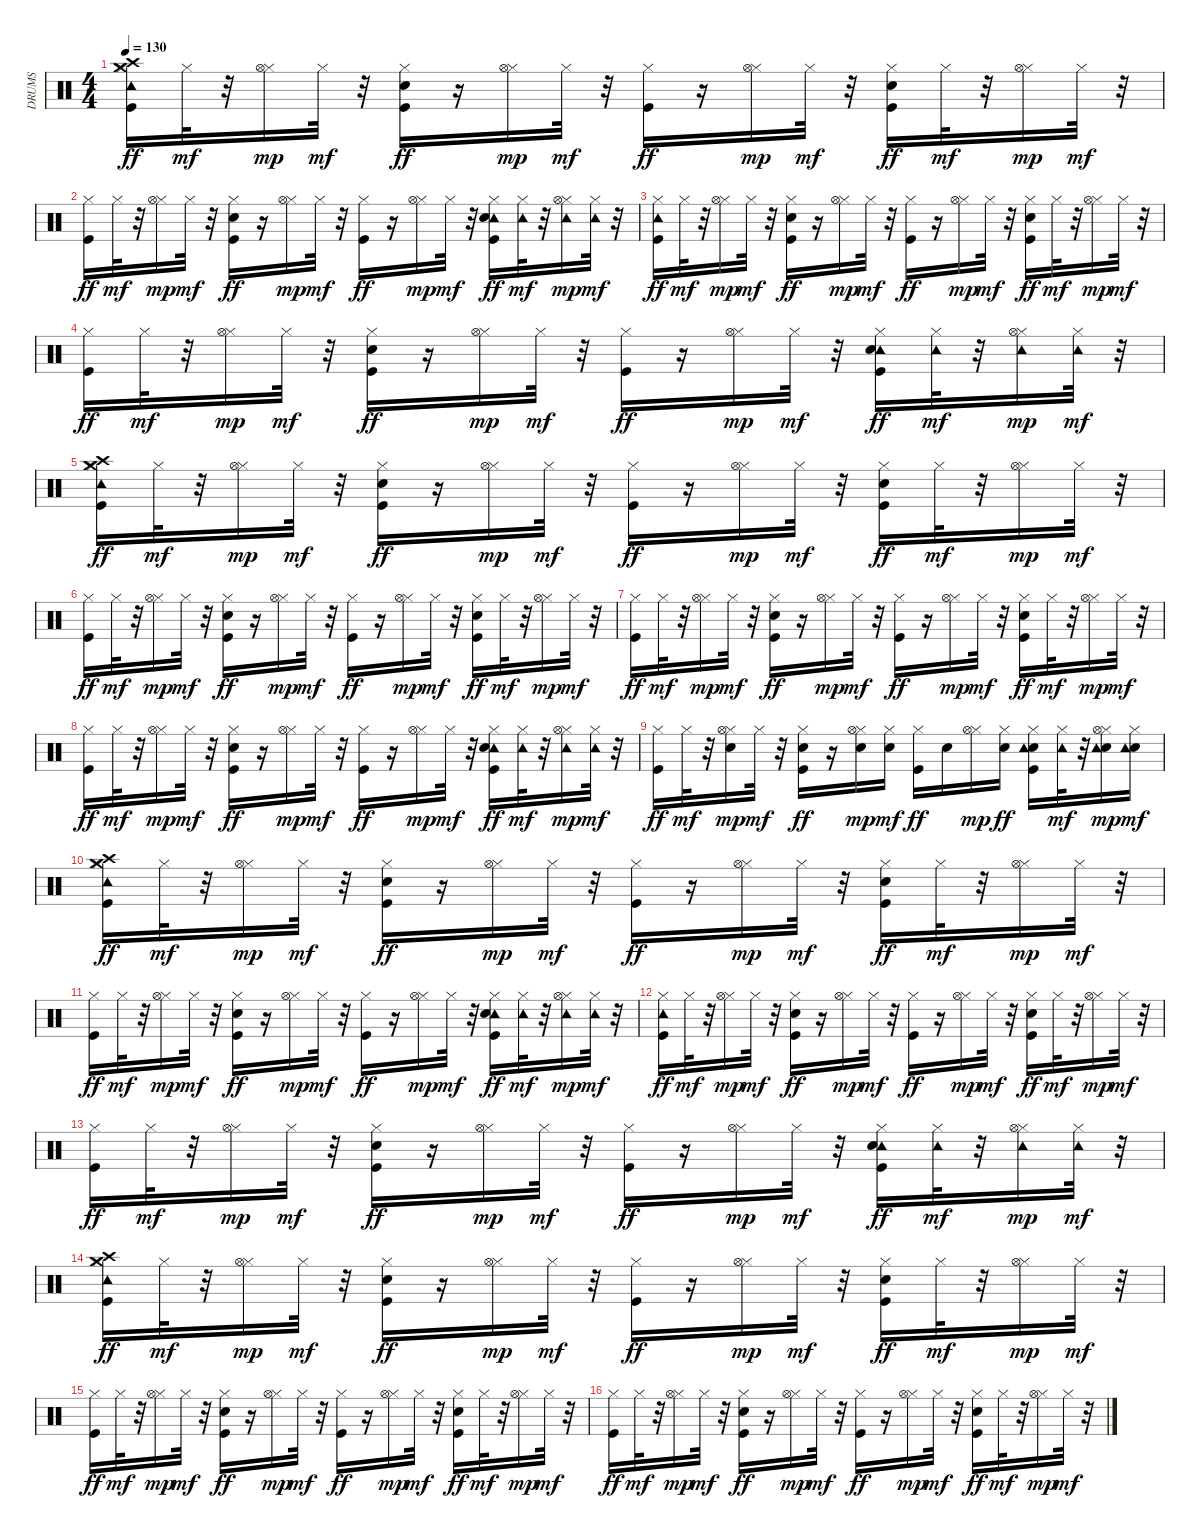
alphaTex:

\track ("DRUMS" "DRUMS") {instrument percussion}
\staff {score}
\articulation defaults
\ts (4 4)
\tempo 130
\clef neutral
\ks c
("Hi-Hat (closed)" "Tambourine (hit)" "Crash high (hit)" "Crash medium (hit)" "Kick (hit)").16{dy ff} "Hi-Hat (closed)".32{dy mf} r.32 ("Hi-Hat (closed)" "Hi-Hat (open)").16{dy mp} "Hi-Hat (closed)".32{dy mf} r.32 ("Hi-Hat (closed)" "Electric Snare (hit)" "Kick (hit)").16{dy ff} r.16 ("Hi-Hat (closed)" "Hi-Hat (open)").16{dy mp} "Hi-Hat (closed)".32{dy mf} r.32 ("Hi-Hat (closed)" "Kick (hit)").16{dy ff} r.16 ("Hi-Hat (closed)" "Hi-Hat (open)").16{dy mp} "Hi-Hat (closed)".32{dy mf} r.32 ("Hi-Hat (closed)" "Electric Snare (hit)" "Kick (hit)").16{dy ff} "Hi-Hat (closed)".32{dy mf} r.32 ("Hi-Hat (closed)" "Hi-Hat (open)").16{dy mp} "Hi-Hat (closed)".32{dy mf} r.32 |
("Hi-Hat (closed)" "Kick (hit)").16{dy ff} "Hi-Hat (closed)".32{dy mf} r.32 ("Hi-Hat (closed)" "Hi-Hat (open)").16{dy mp} "Hi-Hat (closed)".32{dy mf} r.32 ("Hi-Hat (closed)" "Electric Snare (hit)" "Kick (hit)").16{dy ff} r.16 ("Hi-Hat (closed)" "Hi-Hat (open)").16{dy mp} "Hi-Hat (closed)".32{dy mf} r.32 ("Hi-Hat (closed)" "Kick (hit)").16{dy ff} r.16 ("Hi-Hat (closed)" "Hi-Hat (open)").16{dy mp} "Hi-Hat (closed)".32{dy mf} r.32 ("Hi-Hat (closed)" "Tambourine (hit)" "Electric Snare (hit)" "Kick (hit)").16{dy ff} ("Hi-Hat (closed)" "Tambourine (hit)").32{dy mf} r.32 ("Hi-Hat (closed)" "Tambourine (hit)" "Hi-Hat (open)").16{dy mp} ("Hi-Hat (closed)" "Tambourine (hit)").32{dy mf} r.32 |
("Hi-Hat (closed)" "Tambourine (hit)" "Kick (hit)").16{dy ff} "Hi-Hat (closed)".32{dy mf} r.32 ("Hi-Hat (closed)" "Hi-Hat (open)").16{dy mp} "Hi-Hat (closed)".32{dy mf} r.32 ("Hi-Hat (closed)" "Electric Snare (hit)" "Kick (hit)").16{dy ff} r.16 ("Hi-Hat (closed)" "Hi-Hat (open)").16{dy mp} "Hi-Hat (closed)".32{dy mf} r.32 ("Hi-Hat (closed)" "Kick (hit)").16{dy ff} r.16 ("Hi-Hat (closed)" "Hi-Hat (open)").16{dy mp} "Hi-Hat (closed)".32{dy mf} r.32 ("Hi-Hat (closed)" "Electric Snare (hit)" "Kick (hit)").16{dy ff} "Hi-Hat (closed)".32{dy mf} r.32 ("Hi-Hat (closed)" "Hi-Hat (open)").16{dy mp} "Hi-Hat (closed)".32{dy mf} r.32 |
("Hi-Hat (closed)" "Kick (hit)").16{dy ff} "Hi-Hat (closed)".32{dy mf} r.32 ("Hi-Hat (closed)" "Hi-Hat (open)").16{dy mp} "Hi-Hat (closed)".32{dy mf} r.32 ("Hi-Hat (closed)" "Electric Snare (hit)" "Kick (hit)").16{dy ff} r.16 ("Hi-Hat (closed)" "Hi-Hat (open)").16{dy mp} "Hi-Hat (closed)".32{dy mf} r.32 ("Hi-Hat (closed)" "Kick (hit)").16{dy ff} r.16 ("Hi-Hat (closed)" "Hi-Hat (open)").16{dy mp} "Hi-Hat (closed)".32{dy mf} r.32 ("Hi-Hat (closed)" "Tambourine (hit)" "Electric Snare (hit)" "Kick (hit)").16{dy ff} ("Hi-Hat (closed)" "Tambourine (hit)").32{dy mf} r.32 ("Hi-Hat (closed)" "Tambourine (hit)" "Hi-Hat (open)").16{dy mp} ("Hi-Hat (closed)" "Tambourine (hit)").32{dy mf} r.32 |
("Hi-Hat (closed)" "Tambourine (hit)" "Crash high (hit)" "Crash medium (hit)" "Kick (hit)").16{dy ff} "Hi-Hat (closed)".32{dy mf} r.32 ("Hi-Hat (closed)" "Hi-Hat (open)").16{dy mp} "Hi-Hat (closed)".32{dy mf} r.32 ("Hi-Hat (closed)" "Electric Snare (hit)" "Kick (hit)").16{dy ff} r.16 ("Hi-Hat (closed)" "Hi-Hat (open)").16{dy mp} "Hi-Hat (closed)".32{dy mf} r.32 ("Hi-Hat (closed)" "Kick (hit)").16{dy ff} r.16 ("Hi-Hat (closed)" "Hi-Hat (open)").16{dy mp} "Hi-Hat (closed)".32{dy mf} r.32 ("Hi-Hat (closed)" "Electric Snare (hit)" "Kick (hit)").16{dy ff} "Hi-Hat (closed)".32{dy mf} r.32 ("Hi-Hat (closed)" "Hi-Hat (open)").16{dy mp} "Hi-Hat (closed)".32{dy mf} r.32 |
("Hi-Hat (closed)" "Kick (hit)").16{dy ff} "Hi-Hat (closed)".32{dy mf} r.32 ("Hi-Hat (closed)" "Hi-Hat (open)").16{dy mp} "Hi-Hat (closed)".32{dy mf} r.32 ("Hi-Hat (closed)" "Electric Snare (hit)" "Kick (hit)").16{dy ff} r.16 ("Hi-Hat (closed)" "Hi-Hat (open)").16{dy mp} "Hi-Hat (closed)".32{dy mf} r.32 ("Hi-Hat (closed)" "Kick (hit)").16{dy ff} r.16 ("Hi-Hat (closed)" "Hi-Hat (open)").16{dy mp} "Hi-Hat (closed)".32{dy mf} r.32 ("Hi-Hat (closed)" "Electric Snare (hit)" "Kick (hit)").16{dy ff} "Hi-Hat (closed)".32{dy mf} r.32 ("Hi-Hat (closed)" "Hi-Hat (open)").16{dy mp} "Hi-Hat (closed)".32{dy mf} r.32 |
("Hi-Hat (closed)" "Kick (hit)").16{dy ff} "Hi-Hat (closed)".32{dy mf} r.32 ("Hi-Hat (closed)" "Hi-Hat (open)").16{dy mp} "Hi-Hat (closed)".32{dy mf} r.32 ("Hi-Hat (closed)" "Electric Snare (hit)" "Kick (hit)").16{dy ff} r.16 ("Hi-Hat (closed)" "Hi-Hat (open)").16{dy mp} "Hi-Hat (closed)".32{dy mf} r.32 ("Hi-Hat (closed)" "Kick (hit)").16{dy ff} r.16 ("Hi-Hat (closed)" "Hi-Hat (open)").16{dy mp} "Hi-Hat (closed)".32{dy mf} r.32 ("Hi-Hat (closed)" "Electric Snare (hit)" "Kick (hit)").16{dy ff} "Hi-Hat (closed)".32{dy mf} r.32 ("Hi-Hat (closed)" "Hi-Hat (open)").16{dy mp} "Hi-Hat (closed)".32{dy mf} r.32 |
("Hi-Hat (closed)" "Kick (hit)").16{dy ff} "Hi-Hat (closed)".32{dy mf} r.32 ("Hi-Hat (closed)" "Hi-Hat (open)").16{dy mp} "Hi-Hat (closed)".32{dy mf} r.32 ("Hi-Hat (closed)" "Electric Snare (hit)" "Kick (hit)").16{dy ff} r.16 ("Hi-Hat (closed)" "Hi-Hat (open)").16{dy mp} "Hi-Hat (closed)".32{dy mf} r.32 ("Hi-Hat (closed)" "Kick (hit)").16{dy ff} r.16 ("Hi-Hat (closed)" "Hi-Hat (open)").16{dy mp} "Hi-Hat (closed)".32{dy mf} r.32 ("Hi-Hat (closed)" "Tambourine (hit)" "Electric Snare (hit)" "Kick (hit)").16{dy ff} ("Hi-Hat (closed)" "Tambourine (hit)").32{dy mf} r.32 ("Hi-Hat (closed)" "Tambourine (hit)" "Hi-Hat (open)").16{dy mp} ("Hi-Hat (closed)" "Tambourine (hit)").32{dy mf} r.32 |
("Hi-Hat (closed)" "Kick (hit)").16{dy ff} "Hi-Hat (closed)".32{dy mf} r.32 ("Electric Snare (hit)" "Hi-Hat (closed)" "Hi-Hat (open)").16{dy mp} "Hi-Hat (closed)".32{dy mf} r.32 ("Hi-Hat (closed)" "Electric Snare (hit)" "Kick (hit)").16{dy ff} r.16 ("Electric Snare (hit)" "Hi-Hat (closed)" "Hi-Hat (open)").16{dy mp} ("Electric Snare (hit)" "Hi-Hat (closed)").16{dy mf} ("Hi-Hat (closed)" "Kick (hit)").16{dy ff} "Electric Snare (hit)".16 ("Hi-Hat (closed)" "Hi-Hat (open)").16{dy mp} ("Hi-Hat (closed)" "Electric Snare (hit)").16{dy ff} ("Hi-Hat (closed)" "Electric Snare (hit)" "Tambourine (hit)" "Kick (hit)").16 ("Hi-Hat (closed)" "Tambourine (hit)").32{dy mf} r.32 ("Hi-Hat (closed)" "Electric Snare (hit)" "Tambourine (hit)" "Hi-Hat (open)").16{dy mp} ("Hi-Hat (closed)" "Electric Snare (hit)" "Tambourine (hit)").16{dy mf} |
("Hi-Hat (closed)" "Tambourine (hit)" "Crash high (hit)" "Crash medium (hit)" "Kick (hit)").16{dy ff} "Hi-Hat (closed)".32{dy mf} r.32 ("Hi-Hat (closed)" "Hi-Hat (open)").16{dy mp} "Hi-Hat (closed)".32{dy mf} r.32 ("Hi-Hat (closed)" "Electric Snare (hit)" "Kick (hit)").16{dy ff} r.16 ("Hi-Hat (closed)" "Hi-Hat (open)").16{dy mp} "Hi-Hat (closed)".32{dy mf} r.32 ("Hi-Hat (closed)" "Kick (hit)").16{dy ff} r.16 ("Hi-Hat (closed)" "Hi-Hat (open)").16{dy mp} "Hi-Hat (closed)".32{dy mf} r.32 ("Hi-Hat (closed)" "Electric Snare (hit)" "Kick (hit)").16{dy ff} "Hi-Hat (closed)".32{dy mf} r.32 ("Hi-Hat (closed)" "Hi-Hat (open)").16{dy mp} "Hi-Hat (closed)".32{dy mf} r.32 |
("Hi-Hat (closed)" "Kick (hit)").16{dy ff} "Hi-Hat (closed)".32{dy mf} r.32 ("Hi-Hat (closed)" "Hi-Hat (open)").16{dy mp} "Hi-Hat (closed)".32{dy mf} r.32 ("Hi-Hat (closed)" "Electric Snare (hit)" "Kick (hit)").16{dy ff} r.16 ("Hi-Hat (closed)" "Hi-Hat (open)").16{dy mp} "Hi-Hat (closed)".32{dy mf} r.32 ("Hi-Hat (closed)" "Kick (hit)").16{dy ff} r.16 ("Hi-Hat (closed)" "Hi-Hat (open)").16{dy mp} "Hi-Hat (closed)".32{dy mf} r.32 ("Hi-Hat (closed)" "Tambourine (hit)" "Electric Snare (hit)" "Kick (hit)").16{dy ff} ("Hi-Hat (closed)" "Tambourine (hit)").32{dy mf} r.32 ("Hi-Hat (closed)" "Tambourine (hit)" "Hi-Hat (open)").16{dy mp} ("Hi-Hat (closed)" "Tambourine (hit)").32{dy mf} r.32 |
("Hi-Hat (closed)" "Tambourine (hit)" "Kick (hit)").16{dy ff} "Hi-Hat (closed)".32{dy mf} r.32 ("Hi-Hat (closed)" "Hi-Hat (open)").16{dy mp} "Hi-Hat (closed)".32{dy mf} r.32 ("Hi-Hat (closed)" "Electric Snare (hit)" "Kick (hit)").16{dy ff} r.16 ("Hi-Hat (closed)" "Hi-Hat (open)").16{dy mp} "Hi-Hat (closed)".32{dy mf} r.32 ("Hi-Hat (closed)" "Kick (hit)").16{dy ff} r.16 ("Hi-Hat (closed)" "Hi-Hat (open)").16{dy mp} "Hi-Hat (closed)".32{dy mf} r.32 ("Hi-Hat (closed)" "Electric Snare (hit)" "Kick (hit)").16{dy ff} "Hi-Hat (closed)".32{dy mf} r.32 ("Hi-Hat (closed)" "Hi-Hat (open)").16{dy mp} "Hi-Hat (closed)".32{dy mf} r.32 |
("Hi-Hat (closed)" "Kick (hit)").16{dy ff} "Hi-Hat (closed)".32{dy mf} r.32 ("Hi-Hat (closed)" "Hi-Hat (open)").16{dy mp} "Hi-Hat (closed)".32{dy mf} r.32 ("Hi-Hat (closed)" "Electric Snare (hit)" "Kick (hit)").16{dy ff} r.16 ("Hi-Hat (closed)" "Hi-Hat (open)").16{dy mp} "Hi-Hat (closed)".32{dy mf} r.32 ("Hi-Hat (closed)" "Kick (hit)").16{dy ff} r.16 ("Hi-Hat (closed)" "Hi-Hat (open)").16{dy mp} "Hi-Hat (closed)".32{dy mf} r.32 ("Hi-Hat (closed)" "Tambourine (hit)" "Electric Snare (hit)" "Kick (hit)").16{dy ff} ("Hi-Hat (closed)" "Tambourine (hit)").32{dy mf} r.32 ("Hi-Hat (closed)" "Tambourine (hit)" "Hi-Hat (open)").16{dy mp} ("Hi-Hat (closed)" "Tambourine (hit)").32{dy mf} r.32 |
("Hi-Hat (closed)" "Tambourine (hit)" "Crash high (hit)" "Crash medium (hit)" "Kick (hit)").16{dy ff} "Hi-Hat (closed)".32{dy mf} r.32 ("Hi-Hat (closed)" "Hi-Hat (open)").16{dy mp} "Hi-Hat (closed)".32{dy mf} r.32 ("Hi-Hat (closed)" "Electric Snare (hit)" "Kick (hit)").16{dy ff} r.16 ("Hi-Hat (closed)" "Hi-Hat (open)").16{dy mp} "Hi-Hat (closed)".32{dy mf} r.32 ("Hi-Hat (closed)" "Kick (hit)").16{dy ff} r.16 ("Hi-Hat (closed)" "Hi-Hat (open)").16{dy mp} "Hi-Hat (closed)".32{dy mf} r.32 ("Hi-Hat (closed)" "Electric Snare (hit)" "Kick (hit)").16{dy ff} "Hi-Hat (closed)".32{dy mf} r.32 ("Hi-Hat (closed)" "Hi-Hat (open)").16{dy mp} "Hi-Hat (closed)".32{dy mf} r.32 |
("Hi-Hat (closed)" "Kick (hit)").16{dy ff} "Hi-Hat (closed)".32{dy mf} r.32 ("Hi-Hat (closed)" "Hi-Hat (open)").16{dy mp} "Hi-Hat (closed)".32{dy mf} r.32 ("Hi-Hat (closed)" "Electric Snare (hit)" "Kick (hit)").16{dy ff} r.16 ("Hi-Hat (closed)" "Hi-Hat (open)").16{dy mp} "Hi-Hat (closed)".32{dy mf} r.32 ("Hi-Hat (closed)" "Kick (hit)").16{dy ff} r.16 ("Hi-Hat (closed)" "Hi-Hat (open)").16{dy mp} "Hi-Hat (closed)".32{dy mf} r.32 ("Hi-Hat (closed)" "Electric Snare (hit)" "Kick (hit)").16{dy ff} "Hi-Hat (closed)".32{dy mf} r.32 ("Hi-Hat (closed)" "Hi-Hat (open)").16{dy mp} "Hi-Hat (closed)".32{dy mf} r.32 |
("Hi-Hat (closed)" "Kick (hit)").16{dy ff} "Hi-Hat (closed)".32{dy mf} r.32 ("Hi-Hat (closed)" "Hi-Hat (open)").16{dy mp} "Hi-Hat (closed)".32{dy mf} r.32 ("Hi-Hat (closed)" "Electric Snare (hit)" "Kick (hit)").16{dy ff} r.16 ("Hi-Hat (closed)" "Hi-Hat (open)").16{dy mp} "Hi-Hat (closed)".32{dy mf} r.32 ("Hi-Hat (closed)" "Kick (hit)").16{dy ff} r.16 ("Hi-Hat (closed)" "Hi-Hat (open)").16{dy mp} "Hi-Hat (closed)".32{dy mf} r.32 ("Hi-Hat (closed)" "Electric Snare (hit)" "Kick (hit)").16{dy ff} "Hi-Hat (closed)".32{dy mf} r.32 ("Hi-Hat (closed)" "Hi-Hat (open)").16{dy mp} "Hi-Hat (closed)".32{dy mf} r.32
